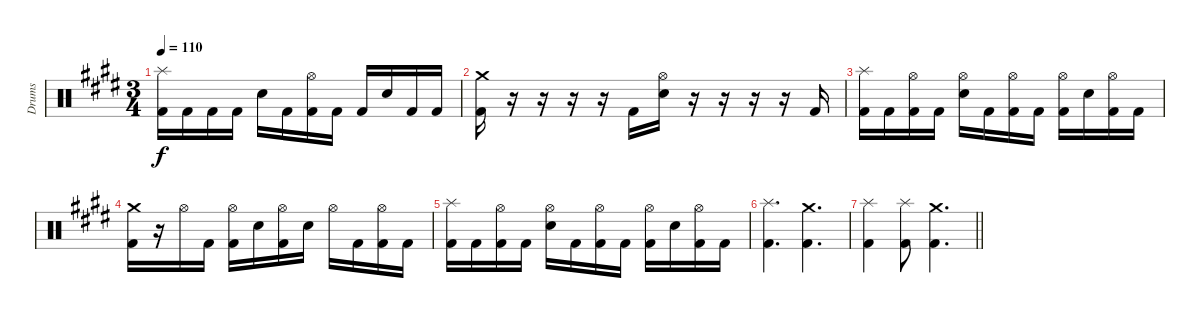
\track ("Drums" "Drums") {instrument percussion}
\staff {score}
\articulation defaults
\ts (3 4)
\tempo 110
\clef neutral
\ks c#minor
("Kick (hit) 2" "Splash (hit)").16{dy f} "Kick (hit) 2".16 "Kick (hit) 2".16 "Kick (hit) 2".16 "Electric Snare (hit)".16 "Kick (hit) 2".16 ("Kick (hit) 2" "Hi-Hat (open)").16 "Kick (hit) 2".16 "Kick (hit) 2".16 "Electric Snare (hit)".16 "Kick (hit) 2".16 "Kick (hit) 2".16 |
("Kick (hit) 2" "Crash medium (hit)").16 r.16 r.16 r.16 r.16 "Kick (hit) 2".16 ("Electric Snare (hit)" "Hi-Hat (open)").16 r.16 r.16 r.16 r.16 "Kick (hit) 2".16 |
("Kick (hit) 2" "Splash (hit)").16 "Kick (hit) 2".16 ("Kick (hit) 2" "Hi-Hat (open)").16 "Kick (hit) 2".16 ("Electric Snare (hit)" "Hi-Hat (open)").16 "Kick (hit) 2".16 ("Kick (hit) 2" "Hi-Hat (open)").16 "Kick (hit) 2".16 ("Kick (hit) 2" "Hi-Hat (open)").16 "Electric Snare (hit)".16 ("Kick (hit) 2" "Hi-Hat (open)").16 "Kick (hit) 2".16 |
("Kick (hit) 2" "Crash medium (hit)").16 r.16 "Hi-Hat (open)".16 "Kick (hit) 2".16 ("Kick (hit) 2" "Hi-Hat (open)").16 "Electric Snare (hit)".16 ("Kick (hit) 2" "Hi-Hat (open)").16 "Electric Snare (hit)".16 "Hi-Hat (open)".16 "Kick (hit) 2".16 ("Kick (hit) 2" "Hi-Hat (open)").16 "Kick (hit) 2".16 |
("Kick (hit) 2" "Splash (hit)").16 "Kick (hit) 2".16 ("Kick (hit) 2" "Hi-Hat (open)").16 "Kick (hit) 2".16 ("Electric Snare (hit)" "Hi-Hat (open)").16 "Kick (hit) 2".16 ("Kick (hit) 2" "Hi-Hat (open)").16 "Kick (hit) 2".16 ("Kick (hit) 2" "Hi-Hat (open)").16 "Electric Snare (hit)".16 ("Kick (hit) 2" "Hi-Hat (open)").16 "Kick (hit) 2".16 |
("Kick (hit) 2" "Splash (hit)").4{d} ("Kick (hit) 2" "Crash medium (hit)").4{d} |
\barLineRight lightlight
("Kick (hit) 2" "Splash (hit)").4 ("Kick (hit) 2" "Splash (hit)").8 ("Kick (hit) 2" "Crash medium (hit)").4{d}
